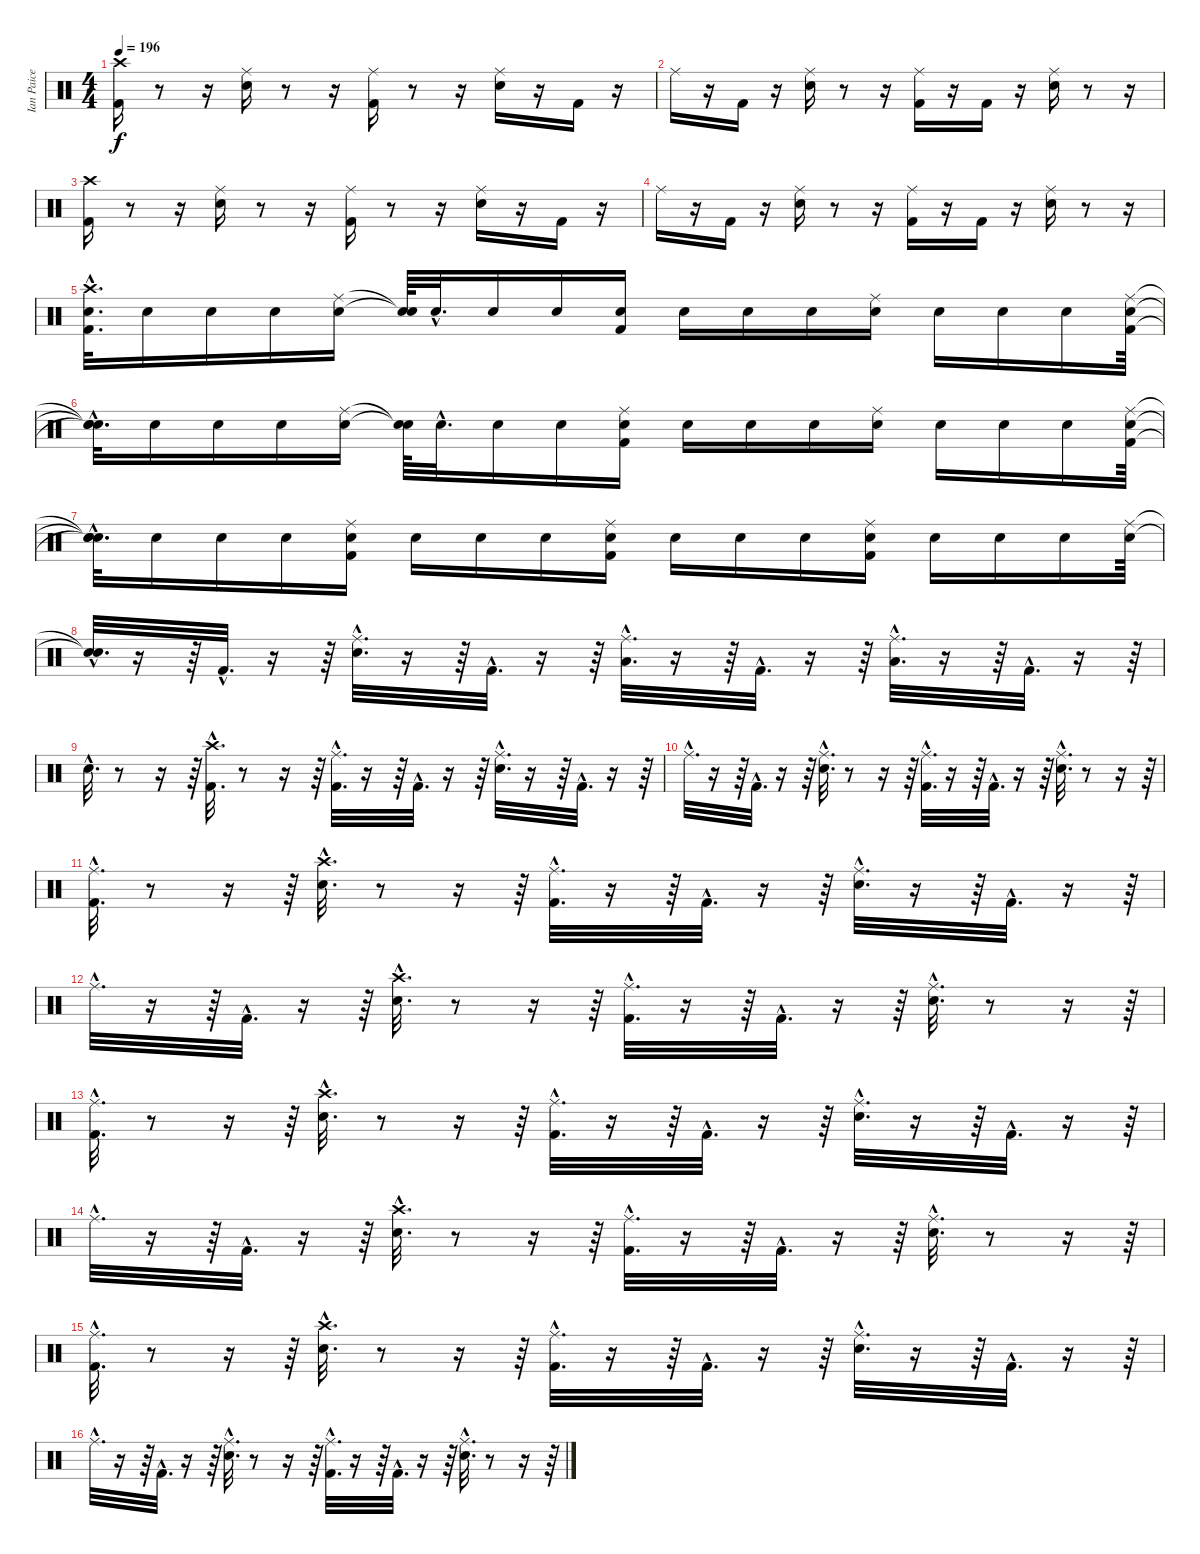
\track ("Ian Paice" "Ian Paice") {instrument percussion}
\staff {score}
\articulation defaults
\ts (4 4)
\tempo 196
\clef neutral
\ks c
("Crash high (hit)" "Kick (hit) 2").16{dy f} r.8 r.16 ("Snare (hit) 2" "Ride (middle)").16 r.8 r.16 ("Kick (hit) 2" "Ride (middle)").16 r.8 r.16 ("Snare (hit) 2" "Ride (middle)").16 r.16 "Kick (hit) 2".16 r.16 |
"Ride (middle)".16 r.16 "Kick (hit) 2".16 r.16 ("Snare (hit) 2" "Ride (middle)").16 r.8 r.16 ("Kick (hit) 2" "Ride (middle)").16 r.16 "Kick (hit) 2".16 r.16 ("Snare (hit) 2" "Ride (middle)").16 r.8 r.16 |
("Crash high (hit)" "Kick (hit) 2").16 r.8 r.16 ("Snare (hit) 2" "Ride (middle)").16 r.8 r.16 ("Kick (hit) 2" "Ride (middle)").16 r.8 r.16 ("Snare (hit) 2" "Ride (middle)").16 r.16 "Kick (hit) 2".16 r.16 |
"Ride (middle)".16 r.16 "Kick (hit) 2".16 r.16 ("Snare (hit) 2" "Ride (middle)").16 r.8 r.16 ("Kick (hit) 2" "Ride (middle)").16 r.16 "Kick (hit) 2".16 r.16 ("Snare (hit) 2" "Ride (middle)").16 r.8 r.16 |
("Crash high (hit)"{hac} "Kick (hit) 2"{hac} "Snare (hit) 2"{hac}).32{d} "Snare (hit) 2".16 "Snare (hit) 2".16 "Snare (hit) 2".16 ("Ride (middle)" "Snare (hit) 2").16 ("Snare (hit)"{t} "Snare (hit)"{t}).64 "Snare (hit) 2"{hac}.32{d} "Snare (hit) 2".16 "Snare (hit) 2".16 ("Kick (hit) 2" "Snare (hit) 2").16 "Snare (hit) 2".16 "Snare (hit) 2".16 "Snare (hit) 2".16 ("Snare (hit) 2" "Ride (middle)").16 "Snare (hit) 2".16 "Snare (hit) 2".16 "Snare (hit) 2".16 ("Snare (hit) 2" "Kick (hit) 2" "Ride (middle)").64 |
("Snare (hit)"{hac t} "Snare (hit)"{hac t} "Snare (hit)"{hac t}).32{d} "Snare (hit) 2".16 "Snare (hit) 2".16 "Snare (hit) 2".16 ("Ride (middle)" "Snare (hit) 2").16 ("Snare (hit)"{t} "Snare (hit)"{t}).64 "Snare (hit) 2"{hac}.32{d} "Snare (hit) 2".16 "Snare (hit) 2".16 ("Kick (hit) 2" "Snare (hit) 2" "Ride (middle)").16 "Snare (hit) 2".16 "Snare (hit) 2".16 "Snare (hit) 2".16 ("Snare (hit) 2" "Ride (middle)").16 "Snare (hit) 2".16 "Snare (hit) 2".16 "Snare (hit) 2".16 ("Ride (middle)" "Kick (hit) 2" "Snare (hit) 2").64 |
("Snare (hit)"{hac t} "Snare (hit)"{hac t} "Snare (hit)"{hac t}).32{d} "Snare (hit) 2".16 "Snare (hit) 2".16 "Snare (hit) 2".16 ("Ride (middle)" "Snare (hit) 2" "Kick (hit) 2").16 "Snare (hit) 2".16 "Snare (hit) 2".16 "Snare (hit) 2".16 ("Kick (hit) 2" "Snare (hit) 2" "Ride (middle)").16 "Snare (hit) 2".16 "Snare (hit) 2".16 "Snare (hit) 2".16 ("Snare (hit) 2" "Ride (middle)" "Kick (hit) 2").16 "Snare (hit) 2".16 "Snare (hit) 2".16 "Snare (hit) 2".16 ("Ride (middle)" "Snare (hit) 2").64 |
("Snare (hit)"{hac t} "Snare (hit)"{hac t}).32{d} r.16 r.64 "Kick (hit) 2"{hac}.32{d} r.16 r.64 ("Ride (middle)"{hac} "Snare (hit) 2"{hac}).32{d} r.16 r.64 "Kick (hit) 2"{hac}.32{d} r.16 r.64 ("Ride (middle)"{hac} "Low Tom (hit)"{hac}).32{d} r.16 r.64 "Kick (hit) 2"{hac}.32{d} r.16 r.64 ("Ride (middle)"{hac} "Low Floor Tom (hit)"{hac}).32{d} r.16 r.64 "Kick (hit) 2"{hac}.32{d} r.16 r.64 |
"Snare (hit) 2"{hac}.32{d} r.8 r.16 r.64 ("Kick (hit) 2"{hac} "Crash high (hit)"{hac}).32{d} r.8 r.16 r.64 ("Ride (middle)"{hac} "Kick (hit) 2"{hac}).32{d} r.16 r.64 "Kick (hit) 2"{hac}.32{d} r.16 r.64 ("Ride (middle)"{hac} "Snare (hit) 2"{hac}).32{d} r.16 r.64 "Kick (hit) 2"{hac}.32{d} r.16 r.64 |
"Ride (middle)"{hac}.32{d} r.16 r.64 "Kick (hit) 2"{hac}.32{d} r.16 r.64 ("Ride (middle)"{hac} "Snare (hit) 2"{hac}).32{d} r.8 r.16 r.64 ("Ride (middle)"{hac} "Kick (hit) 2"{hac}).32{d} r.16 r.64 "Kick (hit) 2"{hac}.32{d} r.16 r.64 ("Ride (middle)"{hac} "Snare (hit) 2"{hac}).32{d} r.8 r.16 r.64 |
("Kick (hit) 2"{hac} "Ride (middle)"{hac}).32{d} r.8 r.16 r.64 ("Crash high (hit)"{hac} "Snare (hit) 2"{hac}).32{d} r.8 r.16 r.64 ("Ride (middle)"{hac} "Kick (hit) 2"{hac}).32{d} r.16 r.64 "Kick (hit) 2"{hac}.32{d} r.16 r.64 ("Ride (middle)"{hac} "Snare (hit) 2"{hac}).32{d} r.16 r.64 "Kick (hit) 2"{hac}.32{d} r.16 r.64 |
"Ride (middle)"{hac}.32{d} r.16 r.64 "Kick (hit) 2"{hac}.32{d} r.16 r.64 ("Snare (hit) 2"{hac} "Crash high (hit)"{hac}).32{d} r.8 r.16 r.64 ("Ride (middle)"{hac} "Kick (hit) 2"{hac}).32{d} r.16 r.64 "Kick (hit) 2"{hac}.32{d} r.16 r.64 ("Ride (middle)"{hac} "Snare (hit) 2"{hac}).32{d} r.8 r.16 r.64 |
("Kick (hit) 2"{hac} "Ride (middle)"{hac}).32{d} r.8 r.16 r.64 ("Crash high (hit)"{hac} "Snare (hit) 2"{hac}).32{d} r.8 r.16 r.64 ("Ride (middle)"{hac} "Kick (hit) 2"{hac}).32{d} r.16 r.64 "Kick (hit) 2"{hac}.32{d} r.16 r.64 ("Ride (middle)"{hac} "Snare (hit) 2"{hac}).32{d} r.16 r.64 "Kick (hit) 2"{hac}.32{d} r.16 r.64 |
"Ride (middle)"{hac}.32{d} r.16 r.64 "Kick (hit) 2"{hac}.32{d} r.16 r.64 ("Snare (hit) 2"{hac} "Crash high (hit)"{hac}).32{d} r.8 r.16 r.64 ("Ride (middle)"{hac} "Kick (hit) 2"{hac}).32{d} r.16 r.64 "Kick (hit) 2"{hac}.32{d} r.16 r.64 ("Ride (middle)"{hac} "Snare (hit) 2"{hac}).32{d} r.8 r.16 r.64 |
("Kick (hit) 2"{hac} "Ride (middle)"{hac}).32{d} r.8 r.16 r.64 ("Crash high (hit)"{hac} "Snare (hit) 2"{hac}).32{d} r.8 r.16 r.64 ("Ride (middle)"{hac} "Kick (hit) 2"{hac}).32{d} r.16 r.64 "Kick (hit) 2"{hac}.32{d} r.16 r.64 ("Ride (middle)"{hac} "Snare (hit) 2"{hac}).32{d} r.16 r.64 "Kick (hit) 2"{hac}.32{d} r.16 r.64 |
"Ride (middle)"{hac}.32{d} r.16 r.64 "Kick (hit) 2"{hac}.32{d} r.16 r.64 ("Ride (middle)"{hac} "Snare (hit) 2"{hac}).32{d} r.8 r.16 r.64 ("Ride (middle)"{hac} "Kick (hit) 2"{hac}).32{d} r.16 r.64 "Kick (hit) 2"{hac}.32{d} r.16 r.64 ("Ride (middle)"{hac} "Snare (hit) 2"{hac}).32{d} r.8 r.16 r.64
